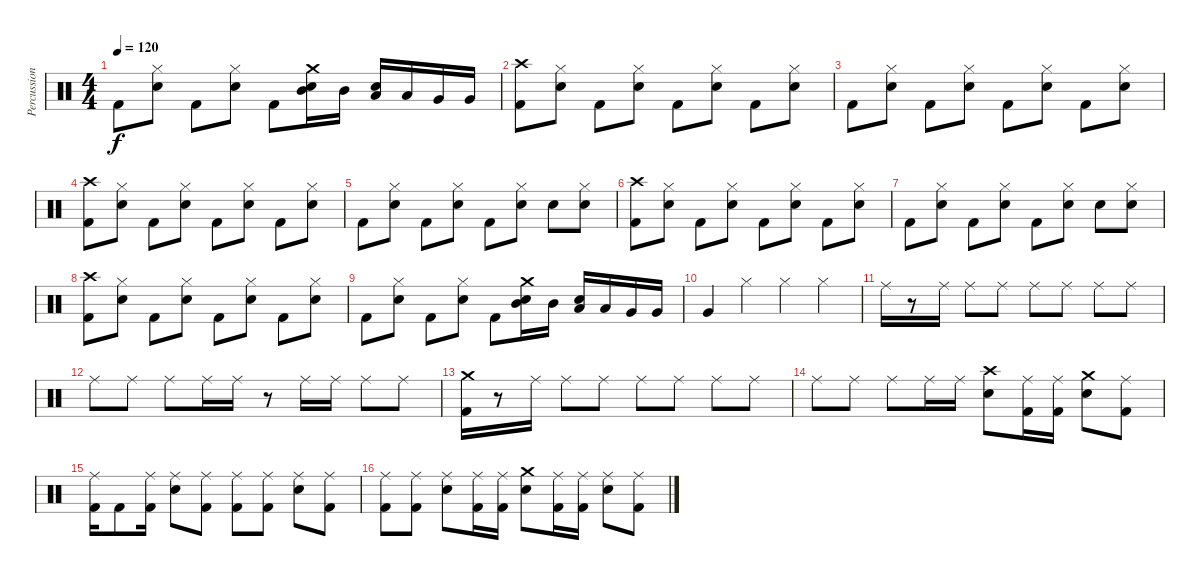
\track ("Percussion" "Percussion") {instrument percussion}
\staff {score}
\articulation defaults
\ts (4 4)
\tempo 120
\clef neutral
\ks c "Kick (hit) 2".8{dy f}
("Hi-Hat (closed)" "Snare (hit) 2").8 "Kick (hit) 2".8 ("Hi-Hat (closed)" "Snare (hit) 2").8 "Kick (hit) 2".8 ("Mid Tom (hit)" "Crash medium (hit)" "Snare (hit) 2").16 "Mid Tom (hit)".16 ("Low Tom (hit)" "Snare (hit) 2").16 "Low Tom (hit)".16 "Very Low Tom (hit)".16 "Very Low Tom (hit)".16 |
("Crash high (hit)" "Kick (hit) 2").8 ("Hi-Hat (closed)" "Snare (hit) 2").8 "Kick (hit) 2".8 ("Hi-Hat (closed)" "Snare (hit) 2").8 "Kick (hit) 2".8 ("Hi-Hat (closed)" "Snare (hit) 2").8 "Kick (hit) 2".8 ("Hi-Hat (closed)" "Snare (hit) 2").8 |
"Kick (hit) 2".8 ("Hi-Hat (closed)" "Snare (hit) 2").8 "Kick (hit) 2".8 ("Hi-Hat (closed)" "Snare (hit) 2").8 "Kick (hit) 2".8 ("Hi-Hat (closed)" "Snare (hit) 2").8 "Kick (hit) 2".8 ("Hi-Hat (closed)" "Snare (hit) 2").8 |
("Crash high (hit)" "Kick (hit) 2").8 ("Hi-Hat (closed)" "Snare (hit) 2").8 "Kick (hit) 2".8 ("Hi-Hat (closed)" "Snare (hit) 2").8 "Kick (hit) 2".8 ("Hi-Hat (closed)" "Snare (hit) 2").8 "Kick (hit) 2".8 ("Hi-Hat (closed)" "Snare (hit) 2").8 |
"Kick (hit) 2".8 ("Hi-Hat (closed)" "Snare (hit) 2").8 "Kick (hit) 2".8 ("Hi-Hat (closed)" "Snare (hit) 2").8 "Kick (hit) 2".8 ("Hi-Hat (closed)" "Snare (hit) 2").8 "Snare (hit) 2".8 ("Hi-Hat (closed)" "Snare (hit) 2").8 |
("Crash high (hit)" "Kick (hit) 2").8 ("Hi-Hat (closed)" "Snare (hit) 2").8 "Kick (hit) 2".8 ("Hi-Hat (closed)" "Snare (hit) 2").8 "Kick (hit) 2".8 ("Hi-Hat (closed)" "Snare (hit) 2").8 "Kick (hit) 2".8 ("Hi-Hat (closed)" "Snare (hit) 2").8 |
"Kick (hit) 2".8 ("Hi-Hat (closed)" "Snare (hit) 2").8 "Kick (hit) 2".8 ("Hi-Hat (closed)" "Snare (hit) 2").8 "Kick (hit) 2".8 ("Hi-Hat (closed)" "Snare (hit) 2").8 "Snare (hit) 2".8 ("Hi-Hat (closed)" "Snare (hit) 2").8 |
("Crash high (hit)" "Kick (hit) 2").8 ("Hi-Hat (closed)" "Snare (hit) 2").8 "Kick (hit) 2".8 ("Hi-Hat (closed)" "Snare (hit) 2").8 "Kick (hit) 2".8 ("Hi-Hat (closed)" "Snare (hit) 2").8 "Kick (hit) 2".8 ("Hi-Hat (closed)" "Snare (hit) 2").8 |
"Kick (hit) 2".8 ("Hi-Hat (closed)" "Snare (hit) 2").8 "Kick (hit) 2".8 ("Hi-Hat (closed)" "Snare (hit) 2").8 "Kick (hit) 2".8 ("Mid Tom (hit)" "Crash medium (hit)" "Snare (hit) 2").16 "Mid Tom (hit)".16 ("Low Tom (hit)" "Snare (hit) 2").16 "Low Tom (hit)".16 "Very Low Tom (hit)".16 "Very Low Tom (hit)".16 |
"Very Low Tom (hit)".4 "Hi-Hat (closed)".4 "Hi-Hat (closed)".4 "Hi-Hat (closed)".4 |
"Ride (middle)".16 r.8 "Ride (middle)".16 "Ride (middle)".8 "Ride (middle)".8 "Ride (middle)".8 "Ride (middle)".8 "Ride (middle)".8 "Ride (middle)".8 |
"Ride (middle)".8 "Ride (middle)".8 "Ride (middle)".8 "Ride (middle)".16 "Ride (middle)".16 r.8 "Ride (middle)".16 "Ride (middle)".16 "Ride (middle)".8 "Ride (middle)".8 |
("Crash medium (hit)" "Kick (hit) 2").16 r.8 "Ride (middle)".16 "Ride (middle)".8 "Ride (middle)".8 "Ride (middle)".8 "Ride (middle)".8 "Ride (middle)".8 "Ride (middle)".8 |
"Ride (middle)".8 "Ride (middle)".8 "Ride (middle)".8 "Ride (middle)".16 "Ride (middle)".16 ("Crash high (hit)" "Snare (hit) 2").8 ("Ride (middle)" "Kick (hit) 2").16 ("Ride (middle)" "Kick (hit) 2").16 ("Crash medium (hit)" "Snare (hit) 2").8 ("Ride (middle)" "Kick (hit) 2").8 |
("Ride (middle)" "Kick (hit) 2").16 "Kick (hit) 2".8 ("Ride (middle)" "Kick (hit) 2").16 ("Ride (middle)" "Snare (hit) 2").8 ("Ride (middle)" "Kick (hit) 2").8 ("Ride (middle)" "Kick (hit) 2").8 ("Ride (middle)" "Kick (hit) 2").8 ("Ride (middle)" "Snare (hit) 2").8 ("Ride (middle)" "Kick (hit) 2").8 |
("Ride (middle)" "Kick (hit) 2").8 ("Ride (middle)" "Kick (hit) 2").8 ("Ride (middle)" "Snare (hit) 2").8 ("Ride (middle)" "Kick (hit) 2").16 ("Ride (middle)" "Kick (hit) 2").16 ("Crash medium (hit)" "Snare (hit) 2").8 ("Ride (middle)" "Kick (hit) 2").16 ("Ride (middle)" "Kick (hit) 2").16 ("Ride (middle)" "Snare (hit) 2").8 ("Ride (middle)" "Kick (hit) 2").8
